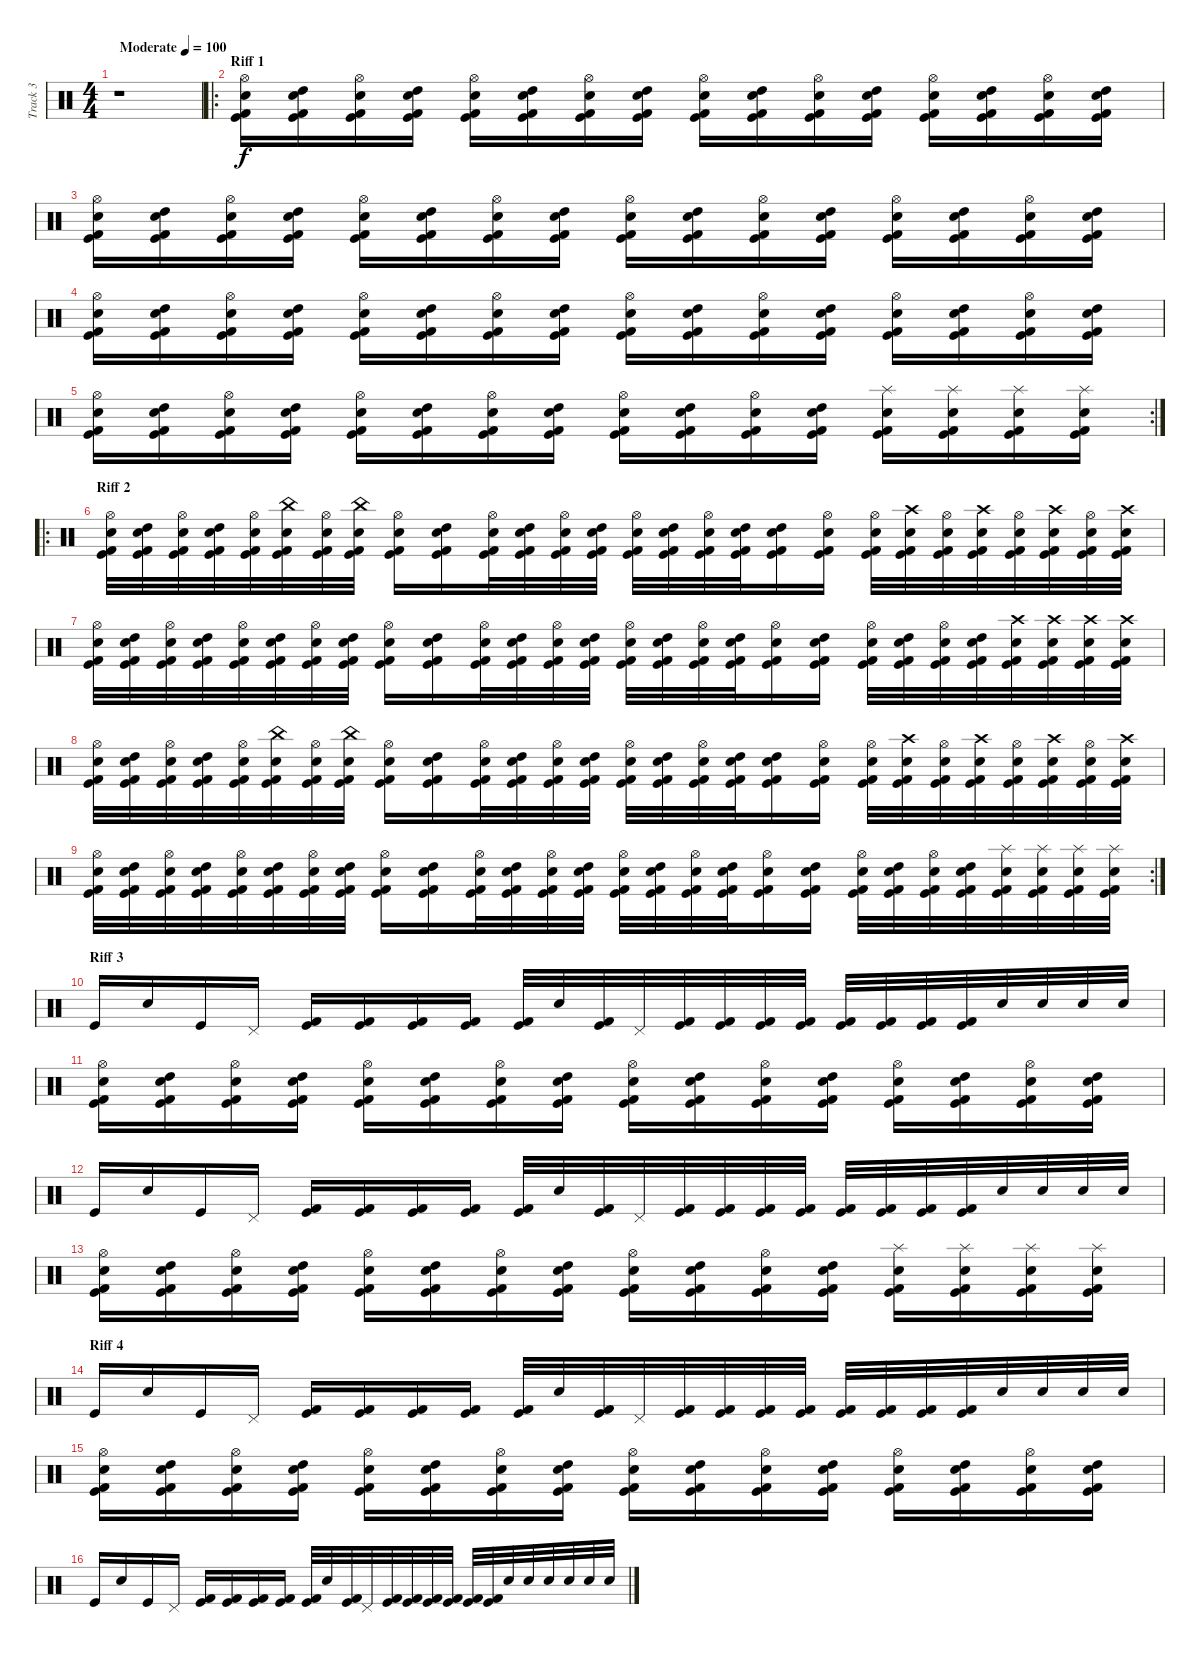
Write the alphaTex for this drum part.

\track ("Track 3" "Track 3") {instrument percussion}
\staff {score}
\articulation defaults
\ts (4 4)
\tempo (100 "Moderate")
\clef neutral
\ks c
r.1{dy f} |
\ro
\section ("" "Riff 1")
("Hi-Hat (open)" "Snare (hit) 2" "Kick (hit) 2" "Kick (hit)").16 ("High Tom (hit)" "Snare (hit) 2" "Kick (hit) 2" "Kick (hit)").16 ("Hi-Hat (open)" "Snare (hit) 2" "Kick (hit) 2" "Kick (hit)").16 ("High Tom (hit)" "Snare (hit) 2" "Kick (hit) 2" "Kick (hit)").16 ("Hi-Hat (open)" "Snare (hit) 2" "Kick (hit) 2" "Kick (hit)").16 ("High Tom (hit)" "Snare (hit) 2" "Kick (hit) 2" "Kick (hit)").16 ("Hi-Hat (open)" "Snare (hit) 2" "Kick (hit) 2" "Kick (hit)").16 ("High Tom (hit)" "Snare (hit) 2" "Kick (hit) 2" "Kick (hit)").16 ("Hi-Hat (open)" "Snare (hit) 2" "Kick (hit) 2" "Kick (hit)").16 ("High Tom (hit)" "Snare (hit) 2" "Kick (hit) 2" "Kick (hit)").16 ("Hi-Hat (open)" "Snare (hit) 2" "Kick (hit) 2" "Kick (hit)").16 ("High Tom (hit)" "Snare (hit) 2" "Kick (hit) 2" "Kick (hit)").16 ("Hi-Hat (open)" "Snare (hit) 2" "Kick (hit) 2" "Kick (hit)").16 ("High Tom (hit)" "Snare (hit) 2" "Kick (hit) 2" "Kick (hit)").16 ("Hi-Hat (open)" "Snare (hit) 2" "Kick (hit) 2" "Kick (hit)").16 ("High Tom (hit)" "Snare (hit) 2" "Kick (hit) 2" "Kick (hit)").16 |
("Hi-Hat (open)" "Snare (hit) 2" "Kick (hit) 2" "Kick (hit)").16 ("High Tom (hit)" "Snare (hit) 2" "Kick (hit) 2" "Kick (hit)").16 ("Hi-Hat (open)" "Snare (hit) 2" "Kick (hit) 2" "Kick (hit)").16 ("High Tom (hit)" "Snare (hit) 2" "Kick (hit) 2" "Kick (hit)").16 ("Hi-Hat (open)" "Snare (hit) 2" "Kick (hit) 2" "Kick (hit)").16 ("High Tom (hit)" "Snare (hit) 2" "Kick (hit) 2" "Kick (hit)").16 ("Hi-Hat (open)" "Snare (hit) 2" "Kick (hit) 2" "Kick (hit)").16 ("High Tom (hit)" "Snare (hit) 2" "Kick (hit) 2" "Kick (hit)").16 ("Hi-Hat (open)" "Snare (hit) 2" "Kick (hit) 2" "Kick (hit)").16 ("High Tom (hit)" "Snare (hit) 2" "Kick (hit) 2" "Kick (hit)").16 ("Hi-Hat (open)" "Snare (hit) 2" "Kick (hit) 2" "Kick (hit)").16 ("High Tom (hit)" "Snare (hit) 2" "Kick (hit) 2" "Kick (hit)").16 ("Hi-Hat (open)" "Snare (hit) 2" "Kick (hit) 2" "Kick (hit)").16 ("High Tom (hit)" "Snare (hit) 2" "Kick (hit) 2" "Kick (hit)").16 ("Hi-Hat (open)" "Snare (hit) 2" "Kick (hit) 2" "Kick (hit)").16 ("High Tom (hit)" "Snare (hit) 2" "Kick (hit) 2" "Kick (hit)").16 |
("Hi-Hat (open)" "Snare (hit) 2" "Kick (hit) 2" "Kick (hit)").16 ("High Tom (hit)" "Snare (hit) 2" "Kick (hit) 2" "Kick (hit)").16 ("Hi-Hat (open)" "Snare (hit) 2" "Kick (hit) 2" "Kick (hit)").16 ("High Tom (hit)" "Snare (hit) 2" "Kick (hit) 2" "Kick (hit)").16 ("Hi-Hat (open)" "Snare (hit) 2" "Kick (hit) 2" "Kick (hit)").16 ("High Tom (hit)" "Snare (hit) 2" "Kick (hit) 2" "Kick (hit)").16 ("Hi-Hat (open)" "Snare (hit) 2" "Kick (hit) 2" "Kick (hit)").16 ("High Tom (hit)" "Snare (hit) 2" "Kick (hit) 2" "Kick (hit)").16 ("Hi-Hat (open)" "Snare (hit) 2" "Kick (hit) 2" "Kick (hit)").16 ("High Tom (hit)" "Snare (hit) 2" "Kick (hit) 2" "Kick (hit)").16 ("Hi-Hat (open)" "Snare (hit) 2" "Kick (hit) 2" "Kick (hit)").16 ("High Tom (hit)" "Snare (hit) 2" "Kick (hit) 2" "Kick (hit)").16 ("Hi-Hat (open)" "Snare (hit) 2" "Kick (hit) 2" "Kick (hit)").16 ("High Tom (hit)" "Snare (hit) 2" "Kick (hit) 2" "Kick (hit)").16 ("Hi-Hat (open)" "Snare (hit) 2" "Kick (hit) 2" "Kick (hit)").16 ("High Tom (hit)" "Snare (hit) 2" "Kick (hit) 2" "Kick (hit)").16 |
\rc 2
("Hi-Hat (open)" "Snare (hit) 2" "Kick (hit) 2" "Kick (hit)").16 ("High Tom (hit)" "Snare (hit) 2" "Kick (hit) 2" "Kick (hit)").16 ("Hi-Hat (open)" "Snare (hit) 2" "Kick (hit) 2" "Kick (hit)").16 ("High Tom (hit)" "Snare (hit) 2" "Kick (hit) 2" "Kick (hit)").16 ("Hi-Hat (open)" "Snare (hit) 2" "Kick (hit) 2" "Kick (hit)").16 ("High Tom (hit)" "Snare (hit) 2" "Kick (hit) 2" "Kick (hit)").16 ("Hi-Hat (open)" "Snare (hit) 2" "Kick (hit) 2" "Kick (hit)").16 ("High Tom (hit)" "Snare (hit) 2" "Kick (hit) 2" "Kick (hit)").16 ("Hi-Hat (open)" "Snare (hit) 2" "Kick (hit) 2" "Kick (hit)").16 ("High Tom (hit)" "Snare (hit) 2" "Kick (hit) 2" "Kick (hit)").16 ("Hi-Hat (open)" "Snare (hit) 2" "Kick (hit) 2" "Kick (hit)").16 ("High Tom (hit)" "Snare (hit) 2" "Kick (hit) 2" "Kick (hit)").16 ("Splash (hit)" "Snare (hit) 2" "Kick (hit) 2" "Kick (hit)").16 ("Splash (hit)" "Snare (hit) 2" "Kick (hit) 2" "Kick (hit)").16 ("Splash (hit)" "Snare (hit) 2" "Kick (hit) 2" "Kick (hit)").16 ("Splash (hit)" "Snare (hit) 2" "Kick (hit) 2" "Kick (hit)").16 |
\ro
\section ("" "Riff 2")
("Hi-Hat (open)" "Snare (hit) 2" "Kick (hit) 2" "Kick (hit)").32 ("High Tom (hit)" "Snare (hit) 2" "Kick (hit) 2" "Kick (hit)").32 ("Hi-Hat (open)" "Snare (hit) 2" "Kick (hit) 2" "Kick (hit)").32 ("High Tom (hit)" "Snare (hit) 2" "Kick (hit) 2" "Kick (hit)").32 ("Hi-Hat (open)" "Snare (hit) 2" "Kick (hit) 2" "Kick (hit)").32 ("China (hit)" "Snare (hit) 2" "Kick (hit) 2" "Kick (hit)").32 ("Hi-Hat (open)" "Snare (hit) 2" "Kick (hit) 2" "Kick (hit)").32 ("China (hit)" "Snare (hit) 2" "Kick (hit) 2" "Kick (hit)").32 ("Hi-Hat (open)" "Snare (hit) 2" "Kick (hit) 2" "Kick (hit)").16 ("High Tom (hit)" "Snare (hit) 2" "Kick (hit) 2" "Kick (hit)").16 ("Hi-Hat (open)" "Snare (hit) 2" "Kick (hit) 2" "Kick (hit)").32 ("High Tom (hit)" "Snare (hit) 2" "Kick (hit) 2" "Kick (hit)").32 ("Hi-Hat (open)" "Snare (hit) 2" "Kick (hit) 2" "Kick (hit)").32 ("High Tom (hit)" "Snare (hit) 2" "Kick (hit) 2" "Kick (hit)").32 ("Hi-Hat (open)" "Snare (hit) 2" "Kick (hit) 2" "Kick (hit)").32 ("High Tom (hit)" "Snare (hit) 2" "Kick (hit) 2" "Kick (hit)").32 ("Hi-Hat (open)" "Snare (hit) 2" "Kick (hit) 2" "Kick (hit)").32 ("High Tom (hit)" "Snare (hit) 2" "Kick (hit) 2" "Kick (hit)").32 ("High Tom (hit)" "Snare (hit) 2" "Kick (hit) 2" "Kick (hit)").16 ("Hi-Hat (open)" "Snare (hit) 2" "Kick (hit) 2" "Kick (hit)").16 ("Hi-Hat (open)" "Snare (hit) 2" "Kick (hit) 2" "Kick (hit)").32 ("Crash high (hit)" "Snare (hit) 2" "Kick (hit) 2" "Kick (hit)").32 ("Hi-Hat (open)" "Snare (hit) 2" "Kick (hit) 2" "Kick (hit)").32 ("Crash high (hit)" "Snare (hit) 2" "Kick (hit) 2" "Kick (hit)").32 ("Hi-Hat (open)" "Snare (hit) 2" "Kick (hit) 2" "Kick (hit)").32 ("Crash high (hit)" "Snare (hit) 2" "Kick (hit) 2" "Kick (hit)").32 ("Hi-Hat (open)" "Snare (hit) 2" "Kick (hit) 2" "Kick (hit)").32 ("Crash high (hit)" "Snare (hit) 2" "Kick (hit) 2" "Kick (hit)").32 |
("Hi-Hat (open)" "Snare (hit) 2" "Kick (hit) 2" "Kick (hit)").32 ("High Tom (hit)" "Snare (hit) 2" "Kick (hit) 2" "Kick (hit)").32 ("Hi-Hat (open)" "Snare (hit) 2" "Kick (hit) 2" "Kick (hit)").32 ("High Tom (hit)" "Snare (hit) 2" "Kick (hit) 2" "Kick (hit)").32 ("Hi-Hat (open)" "Snare (hit) 2" "Kick (hit) 2" "Kick (hit)").32 ("High Tom (hit)" "Snare (hit) 2" "Kick (hit) 2" "Kick (hit)").32 ("Hi-Hat (open)" "Snare (hit) 2" "Kick (hit) 2" "Kick (hit)").32 ("High Tom (hit)" "Snare (hit) 2" "Kick (hit) 2" "Kick (hit)").32 ("Hi-Hat (open)" "Snare (hit) 2" "Kick (hit) 2" "Kick (hit)").16 ("High Tom (hit)" "Snare (hit) 2" "Kick (hit) 2" "Kick (hit)").16 ("Hi-Hat (open)" "Snare (hit) 2" "Kick (hit) 2" "Kick (hit)").32 ("High Tom (hit)" "Snare (hit) 2" "Kick (hit) 2" "Kick (hit)").32 ("Hi-Hat (open)" "Snare (hit) 2" "Kick (hit) 2" "Kick (hit)").32 ("High Tom (hit)" "Snare (hit) 2" "Kick (hit) 2" "Kick (hit)").32 ("Hi-Hat (open)" "Snare (hit) 2" "Kick (hit) 2" "Kick (hit)").32 ("High Tom (hit)" "Snare (hit) 2" "Kick (hit) 2" "Kick (hit)").32 ("Hi-Hat (open)" "Snare (hit) 2" "Kick (hit) 2" "Kick (hit)").32 ("High Tom (hit)" "Snare (hit) 2" "Kick (hit) 2" "Kick (hit)").32 ("Hi-Hat (open)" "Snare (hit) 2" "Kick (hit) 2" "Kick (hit)").16 ("High Tom (hit)" "Snare (hit) 2" "Kick (hit) 2" "Kick (hit)").16 ("Hi-Hat (open)" "Snare (hit) 2" "Kick (hit) 2" "Kick (hit)").32 ("High Tom (hit)" "Snare (hit) 2" "Kick (hit) 2" "Kick (hit)").32 ("Hi-Hat (open)" "Snare (hit) 2" "Kick (hit) 2" "Kick (hit)").32 ("High Tom (hit)" "Snare (hit) 2" "Kick (hit) 2" "Kick (hit)").32 ("Crash high (hit)" "Snare (hit) 2" "Kick (hit) 2" "Kick (hit)").32 ("Crash high (hit)" "Snare (hit) 2" "Kick (hit) 2" "Kick (hit)").32 ("Crash high (hit)" "Snare (hit) 2" "Kick (hit) 2" "Kick (hit)").32 ("Crash high (hit)" "Snare (hit) 2" "Kick (hit) 2" "Kick (hit)").32 |
("Hi-Hat (open)" "Snare (hit) 2" "Kick (hit) 2" "Kick (hit)").32 ("High Tom (hit)" "Snare (hit) 2" "Kick (hit) 2" "Kick (hit)").32 ("Hi-Hat (open)" "Snare (hit) 2" "Kick (hit) 2" "Kick (hit)").32 ("High Tom (hit)" "Snare (hit) 2" "Kick (hit) 2" "Kick (hit)").32 ("Hi-Hat (open)" "Snare (hit) 2" "Kick (hit) 2" "Kick (hit)").32 ("China (hit)" "Snare (hit) 2" "Kick (hit) 2" "Kick (hit)").32 ("Hi-Hat (open)" "Snare (hit) 2" "Kick (hit) 2" "Kick (hit)").32 ("China (hit)" "Snare (hit) 2" "Kick (hit) 2" "Kick (hit)").32 ("Hi-Hat (open)" "Snare (hit) 2" "Kick (hit) 2" "Kick (hit)").16 ("High Tom (hit)" "Snare (hit) 2" "Kick (hit) 2" "Kick (hit)").16 ("Hi-Hat (open)" "Snare (hit) 2" "Kick (hit) 2" "Kick (hit)").32 ("High Tom (hit)" "Snare (hit) 2" "Kick (hit) 2" "Kick (hit)").32 ("Hi-Hat (open)" "Snare (hit) 2" "Kick (hit) 2" "Kick (hit)").32 ("High Tom (hit)" "Snare (hit) 2" "Kick (hit) 2" "Kick (hit)").32 ("Hi-Hat (open)" "Snare (hit) 2" "Kick (hit) 2" "Kick (hit)").32 ("High Tom (hit)" "Snare (hit) 2" "Kick (hit) 2" "Kick (hit)").32 ("Hi-Hat (open)" "Snare (hit) 2" "Kick (hit) 2" "Kick (hit)").32 ("High Tom (hit)" "Snare (hit) 2" "Kick (hit) 2" "Kick (hit)").32 ("High Tom (hit)" "Snare (hit) 2" "Kick (hit) 2" "Kick (hit)").16 ("Hi-Hat (open)" "Snare (hit) 2" "Kick (hit) 2" "Kick (hit)").16 ("Hi-Hat (open)" "Snare (hit) 2" "Kick (hit) 2" "Kick (hit)").32 ("Crash high (hit)" "Snare (hit) 2" "Kick (hit) 2" "Kick (hit)").32 ("Hi-Hat (open)" "Snare (hit) 2" "Kick (hit) 2" "Kick (hit)").32 ("Crash high (hit)" "Snare (hit) 2" "Kick (hit) 2" "Kick (hit)").32 ("Hi-Hat (open)" "Snare (hit) 2" "Kick (hit) 2" "Kick (hit)").32 ("Crash high (hit)" "Snare (hit) 2" "Kick (hit) 2" "Kick (hit)").32 ("Hi-Hat (open)" "Snare (hit) 2" "Kick (hit) 2" "Kick (hit)").32 ("Crash high (hit)" "Snare (hit) 2" "Kick (hit) 2" "Kick (hit)").32 |
\rc 2
("Hi-Hat (open)" "Snare (hit) 2" "Kick (hit) 2" "Kick (hit)").32 ("High Tom (hit)" "Snare (hit) 2" "Kick (hit) 2" "Kick (hit)").32 ("Hi-Hat (open)" "Snare (hit) 2" "Kick (hit) 2" "Kick (hit)").32 ("High Tom (hit)" "Snare (hit) 2" "Kick (hit) 2" "Kick (hit)").32 ("Hi-Hat (open)" "Snare (hit) 2" "Kick (hit) 2" "Kick (hit)").32 ("High Tom (hit)" "Snare (hit) 2" "Kick (hit) 2" "Kick (hit)").32 ("Hi-Hat (open)" "Snare (hit) 2" "Kick (hit) 2" "Kick (hit)").32 ("High Tom (hit)" "Snare (hit) 2" "Kick (hit) 2" "Kick (hit)").32 ("Hi-Hat (open)" "Snare (hit) 2" "Kick (hit) 2" "Kick (hit)").16 ("High Tom (hit)" "Snare (hit) 2" "Kick (hit) 2" "Kick (hit)").16 ("Hi-Hat (open)" "Snare (hit) 2" "Kick (hit) 2" "Kick (hit)").32 ("High Tom (hit)" "Snare (hit) 2" "Kick (hit) 2" "Kick (hit)").32 ("Hi-Hat (open)" "Snare (hit) 2" "Kick (hit) 2" "Kick (hit)").32 ("High Tom (hit)" "Snare (hit) 2" "Kick (hit) 2" "Kick (hit)").32 ("Hi-Hat (open)" "Snare (hit) 2" "Kick (hit) 2" "Kick (hit)").32 ("High Tom (hit)" "Snare (hit) 2" "Kick (hit) 2" "Kick (hit)").32 ("Hi-Hat (open)" "Snare (hit) 2" "Kick (hit) 2" "Kick (hit)").32 ("High Tom (hit)" "Snare (hit) 2" "Kick (hit) 2" "Kick (hit)").32 ("Hi-Hat (open)" "Snare (hit) 2" "Kick (hit) 2" "Kick (hit)").16 ("High Tom (hit)" "Snare (hit) 2" "Kick (hit) 2" "Kick (hit)").16 ("Hi-Hat (open)" "Snare (hit) 2" "Kick (hit) 2" "Kick (hit)").32 ("High Tom (hit)" "Snare (hit) 2" "Kick (hit) 2" "Kick (hit)").32 ("Hi-Hat (open)" "Snare (hit) 2" "Kick (hit) 2" "Kick (hit)").32 ("High Tom (hit)" "Snare (hit) 2" "Kick (hit) 2" "Kick (hit)").32 ("Splash (hit)" "Snare (hit) 2" "Kick (hit) 2" "Kick (hit)").32 ("Splash (hit)" "Snare (hit) 2" "Kick (hit) 2" "Kick (hit)").32 ("Splash (hit)" "Snare (hit) 2" "Kick (hit) 2" "Kick (hit)").32 ("Splash (hit)" "Snare (hit) 2" "Kick (hit) 2" "Kick (hit)").32 |
\section ("" "Riff 3")
"Kick (hit)".16 "Snare (hit) 2".16 "Kick (hit)".16 "Pedal Hi-Hat (hit)".16 ("Kick (hit) 2" "Kick (hit)").16 ("Kick (hit) 2" "Kick (hit)").16 ("Kick (hit) 2" "Kick (hit)").16 ("Kick (hit) 2" "Kick (hit)").16 ("Kick (hit) 2" "Kick (hit)").32 "Snare (hit) 2".32 ("Kick (hit) 2" "Kick (hit)").32 "Pedal Hi-Hat (hit)".32 ("Kick (hit) 2" "Kick (hit)").32 ("Kick (hit) 2" "Kick (hit)").32 ("Kick (hit) 2" "Kick (hit)").32 ("Kick (hit) 2" "Kick (hit)").32 ("Kick (hit) 2" "Kick (hit)").32 ("Kick (hit) 2" "Kick (hit)").32 ("Kick (hit) 2" "Kick (hit)").32 ("Kick (hit) 2" "Kick (hit)").32 "Snare (hit) 2".32 "Snare (hit) 2".32 "Snare (hit) 2".32 "Snare (hit) 2".32 |
("Hi-Hat (open)" "Snare (hit) 2" "Kick (hit) 2" "Kick (hit)").16 ("High Tom (hit)" "Snare (hit) 2" "Kick (hit) 2" "Kick (hit)").16 ("Hi-Hat (open)" "Snare (hit) 2" "Kick (hit) 2" "Kick (hit)").16 ("High Tom (hit)" "Snare (hit) 2" "Kick (hit) 2" "Kick (hit)").16 ("Hi-Hat (open)" "Snare (hit) 2" "Kick (hit) 2" "Kick (hit)").16 ("High Tom (hit)" "Snare (hit) 2" "Kick (hit) 2" "Kick (hit)").16 ("Hi-Hat (open)" "Snare (hit) 2" "Kick (hit) 2" "Kick (hit)").16 ("High Tom (hit)" "Snare (hit) 2" "Kick (hit) 2" "Kick (hit)").16 ("Hi-Hat (open)" "Snare (hit) 2" "Kick (hit) 2" "Kick (hit)").16 ("High Tom (hit)" "Snare (hit) 2" "Kick (hit) 2" "Kick (hit)").16 ("Hi-Hat (open)" "Snare (hit) 2" "Kick (hit) 2" "Kick (hit)").16 ("High Tom (hit)" "Snare (hit) 2" "Kick (hit) 2" "Kick (hit)").16 ("Hi-Hat (open)" "Snare (hit) 2" "Kick (hit) 2" "Kick (hit)").16 ("High Tom (hit)" "Snare (hit) 2" "Kick (hit) 2" "Kick (hit)").16 ("Hi-Hat (open)" "Snare (hit) 2" "Kick (hit) 2" "Kick (hit)").16 ("High Tom (hit)" "Snare (hit) 2" "Kick (hit) 2" "Kick (hit)").16 |
"Kick (hit)".16 "Snare (hit) 2".16 "Kick (hit)".16 "Pedal Hi-Hat (hit)".16 ("Kick (hit) 2" "Kick (hit)").16 ("Kick (hit) 2" "Kick (hit)").16 ("Kick (hit) 2" "Kick (hit)").16 ("Kick (hit) 2" "Kick (hit)").16 ("Kick (hit) 2" "Kick (hit)").32 "Snare (hit) 2".32 ("Kick (hit) 2" "Kick (hit)").32 "Pedal Hi-Hat (hit)".32 ("Kick (hit) 2" "Kick (hit)").32 ("Kick (hit) 2" "Kick (hit)").32 ("Kick (hit) 2" "Kick (hit)").32 ("Kick (hit) 2" "Kick (hit)").32 ("Kick (hit) 2" "Kick (hit)").32 ("Kick (hit) 2" "Kick (hit)").32 ("Kick (hit) 2" "Kick (hit)").32 ("Kick (hit) 2" "Kick (hit)").32 "Snare (hit) 2".32 "Snare (hit) 2".32 "Snare (hit) 2".32 "Snare (hit) 2".32 |
("Hi-Hat (open)" "Snare (hit) 2" "Kick (hit) 2" "Kick (hit)").16 ("High Tom (hit)" "Snare (hit) 2" "Kick (hit) 2" "Kick (hit)").16 ("Hi-Hat (open)" "Snare (hit) 2" "Kick (hit) 2" "Kick (hit)").16 ("High Tom (hit)" "Snare (hit) 2" "Kick (hit) 2" "Kick (hit)").16 ("Hi-Hat (open)" "Snare (hit) 2" "Kick (hit) 2" "Kick (hit)").16 ("High Tom (hit)" "Snare (hit) 2" "Kick (hit) 2" "Kick (hit)").16 ("Hi-Hat (open)" "Snare (hit) 2" "Kick (hit) 2" "Kick (hit)").16 ("High Tom (hit)" "Snare (hit) 2" "Kick (hit) 2" "Kick (hit)").16 ("Hi-Hat (open)" "Snare (hit) 2" "Kick (hit) 2" "Kick (hit)").16 ("High Tom (hit)" "Snare (hit) 2" "Kick (hit) 2" "Kick (hit)").16 ("Hi-Hat (open)" "Snare (hit) 2" "Kick (hit) 2" "Kick (hit)").16 ("High Tom (hit)" "Snare (hit) 2" "Kick (hit) 2" "Kick (hit)").16 ("Splash (hit)" "Snare (hit) 2" "Kick (hit) 2" "Kick (hit)").16 ("Splash (hit)" "Snare (hit) 2" "Kick (hit) 2" "Kick (hit)").16 ("Splash (hit)" "Snare (hit) 2" "Kick (hit) 2" "Kick (hit)").16 ("Splash (hit)" "Snare (hit) 2" "Kick (hit) 2" "Kick (hit)").16 |
\section ("" "Riff 4")
"Kick (hit)".16 "Snare (hit) 2".16 "Kick (hit)".16 "Pedal Hi-Hat (hit)".16 ("Kick (hit) 2" "Kick (hit)").16 ("Kick (hit) 2" "Kick (hit)").16 ("Kick (hit) 2" "Kick (hit)").16 ("Kick (hit) 2" "Kick (hit)").16 ("Kick (hit) 2" "Kick (hit)").32 "Snare (hit) 2".32 ("Kick (hit) 2" "Kick (hit)").32 "Pedal Hi-Hat (hit)".32 ("Kick (hit) 2" "Kick (hit)").32 ("Kick (hit) 2" "Kick (hit)").32 ("Kick (hit) 2" "Kick (hit)").32 ("Kick (hit) 2" "Kick (hit)").32 ("Kick (hit) 2" "Kick (hit)").32 ("Kick (hit) 2" "Kick (hit)").32 ("Kick (hit) 2" "Kick (hit)").32 ("Kick (hit) 2" "Kick (hit)").32 "Snare (hit) 2".32 "Snare (hit) 2".32 "Snare (hit) 2".32 "Snare (hit) 2".32 |
("Hi-Hat (open)" "Snare (hit) 2" "Kick (hit) 2" "Kick (hit)").16 ("High Tom (hit)" "Snare (hit) 2" "Kick (hit) 2" "Kick (hit)").16 ("Hi-Hat (open)" "Snare (hit) 2" "Kick (hit) 2" "Kick (hit)").16 ("High Tom (hit)" "Snare (hit) 2" "Kick (hit) 2" "Kick (hit)").16 ("Hi-Hat (open)" "Snare (hit) 2" "Kick (hit) 2" "Kick (hit)").16 ("High Tom (hit)" "Snare (hit) 2" "Kick (hit) 2" "Kick (hit)").16 ("Hi-Hat (open)" "Snare (hit) 2" "Kick (hit) 2" "Kick (hit)").16 ("High Tom (hit)" "Snare (hit) 2" "Kick (hit) 2" "Kick (hit)").16 ("Hi-Hat (open)" "Snare (hit) 2" "Kick (hit) 2" "Kick (hit)").16 ("High Tom (hit)" "Snare (hit) 2" "Kick (hit) 2" "Kick (hit)").16 ("Hi-Hat (open)" "Snare (hit) 2" "Kick (hit) 2" "Kick (hit)").16 ("High Tom (hit)" "Snare (hit) 2" "Kick (hit) 2" "Kick (hit)").16 ("Hi-Hat (open)" "Snare (hit) 2" "Kick (hit) 2" "Kick (hit)").16 ("High Tom (hit)" "Snare (hit) 2" "Kick (hit) 2" "Kick (hit)").16 ("Hi-Hat (open)" "Snare (hit) 2" "Kick (hit) 2" "Kick (hit)").16 ("High Tom (hit)" "Snare (hit) 2" "Kick (hit) 2" "Kick (hit)").16 |
"Kick (hit)".16 "Snare (hit) 2".16 "Kick (hit)".16 "Pedal Hi-Hat (hit)".16 ("Kick (hit) 2" "Kick (hit)").16 ("Kick (hit) 2" "Kick (hit)").16 ("Kick (hit) 2" "Kick (hit)").16 ("Kick (hit) 2" "Kick (hit)").16 ("Kick (hit) 2" "Kick (hit)").32 "Snare (hit) 2".32 ("Kick (hit) 2" "Kick (hit)").32 "Pedal Hi-Hat (hit)".32 ("Kick (hit) 2" "Kick (hit)").32 ("Kick (hit) 2" "Kick (hit)").32 ("Kick (hit) 2" "Kick (hit)").32 ("Kick (hit) 2" "Kick (hit)").32 ("Kick (hit) 2" "Kick (hit)").32 ("Kick (hit) 2" "Kick (hit)").32 "Snare (hit) 2".32 "Snare (hit) 2".32 "Snare (hit) 2".32 "Snare (hit) 2".32 "Snare (hit) 2".32 "Snare (hit) 2".32
